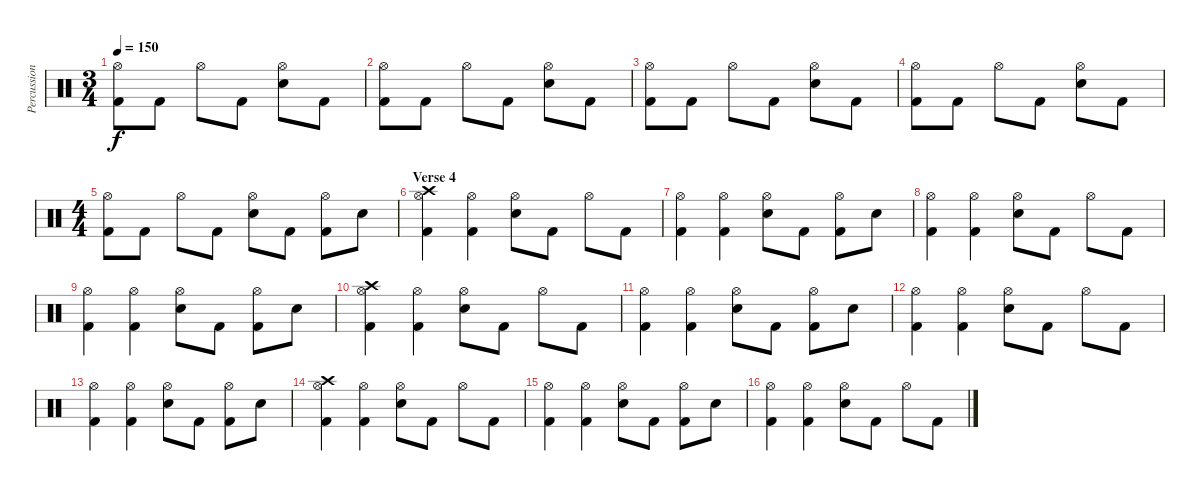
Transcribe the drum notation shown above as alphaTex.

\track ("Percussions" "Percussion") {instrument percussion}
\staff {score}
\articulation defaults
\ts (3 4)
\tempo 150
\clef neutral
\ks c
("Hi-Hat (open)" "Kick (hit) 2").8{dy f} "Kick (hit) 2".8 "Hi-Hat (open)".8 "Kick (hit) 2".8 ("Hi-Hat (open)" "Electric Snare (hit)").8 "Kick (hit) 2".8 |
("Hi-Hat (open)" "Kick (hit) 2").8 "Kick (hit) 2".8 "Hi-Hat (open)".8 "Kick (hit) 2".8 ("Hi-Hat (open)" "Electric Snare (hit)").8 "Kick (hit) 2".8 |
("Hi-Hat (open)" "Kick (hit) 2").8 "Kick (hit) 2".8 "Hi-Hat (open)".8 "Kick (hit) 2".8 ("Hi-Hat (open)" "Electric Snare (hit)").8 "Kick (hit) 2".8 |
("Hi-Hat (open)" "Kick (hit) 2").8 "Kick (hit) 2".8 "Hi-Hat (open)".8 "Kick (hit) 2".8 ("Hi-Hat (open)" "Electric Snare (hit)").8 "Kick (hit) 2".8 |
\ts (4 4)
("Hi-Hat (open)" "Kick (hit) 2").8 "Kick (hit) 2".8 "Hi-Hat (open)".8 "Kick (hit) 2".8 ("Hi-Hat (open)" "Electric Snare (hit)").8 "Kick (hit) 2".8 ("Hi-Hat (open)" "Kick (hit) 2").8 "Electric Snare (hit)".8 |
\section ("" "Verse 4")
("Crash high (hit)" "Hi-Hat (open)" "Kick (hit) 2").4 ("Hi-Hat (open)" "Kick (hit) 2").4 ("Hi-Hat (open)" "Electric Snare (hit)").8 "Kick (hit) 2".8 "Hi-Hat (open)".8 "Kick (hit) 2".8 |
("Hi-Hat (open)" "Kick (hit) 2").4 ("Hi-Hat (open)" "Kick (hit) 2").4 ("Hi-Hat (open)" "Electric Snare (hit)").8 "Kick (hit) 2".8 ("Hi-Hat (open)" "Kick (hit) 2").8 "Electric Snare (hit)".8 |
("Hi-Hat (open)" "Kick (hit) 2").4 ("Hi-Hat (open)" "Kick (hit) 2").4 ("Hi-Hat (open)" "Electric Snare (hit)").8 "Kick (hit) 2".8 "Hi-Hat (open)".8 "Kick (hit) 2".8 |
("Hi-Hat (open)" "Kick (hit) 2").4 ("Hi-Hat (open)" "Kick (hit) 2").4 ("Hi-Hat (open)" "Electric Snare (hit)").8 "Kick (hit) 2".8 ("Hi-Hat (open)" "Kick (hit) 2").8 "Electric Snare (hit)".8 |
("Crash high (hit)" "Hi-Hat (open)" "Kick (hit) 2").4 ("Hi-Hat (open)" "Kick (hit) 2").4 ("Hi-Hat (open)" "Electric Snare (hit)").8 "Kick (hit) 2".8 "Hi-Hat (open)".8 "Kick (hit) 2".8 |
("Hi-Hat (open)" "Kick (hit) 2").4 ("Hi-Hat (open)" "Kick (hit) 2").4 ("Hi-Hat (open)" "Electric Snare (hit)").8 "Kick (hit) 2".8 ("Hi-Hat (open)" "Kick (hit) 2").8 "Electric Snare (hit)".8 |
("Hi-Hat (open)" "Kick (hit) 2").4 ("Hi-Hat (open)" "Kick (hit) 2").4 ("Hi-Hat (open)" "Electric Snare (hit)").8 "Kick (hit) 2".8 "Hi-Hat (open)".8 "Kick (hit) 2".8 |
("Hi-Hat (open)" "Kick (hit) 2").4 ("Hi-Hat (open)" "Kick (hit) 2").4 ("Hi-Hat (open)" "Electric Snare (hit)").8 "Kick (hit) 2".8 ("Hi-Hat (open)" "Kick (hit) 2").8 "Electric Snare (hit)".8 |
("Crash high (hit)" "Hi-Hat (open)" "Kick (hit) 2").4 ("Hi-Hat (open)" "Kick (hit) 2").4 ("Hi-Hat (open)" "Electric Snare (hit)").8 "Kick (hit) 2".8 "Hi-Hat (open)".8 "Kick (hit) 2".8 |
("Hi-Hat (open)" "Kick (hit) 2").4 ("Hi-Hat (open)" "Kick (hit) 2").4 ("Hi-Hat (open)" "Electric Snare (hit)").8 "Kick (hit) 2".8 ("Hi-Hat (open)" "Kick (hit) 2").8 "Electric Snare (hit)".8 |
("Hi-Hat (open)" "Kick (hit) 2").4 ("Hi-Hat (open)" "Kick (hit) 2").4 ("Hi-Hat (open)" "Electric Snare (hit)").8 "Kick (hit) 2".8 "Hi-Hat (open)".8 "Kick (hit) 2".8
